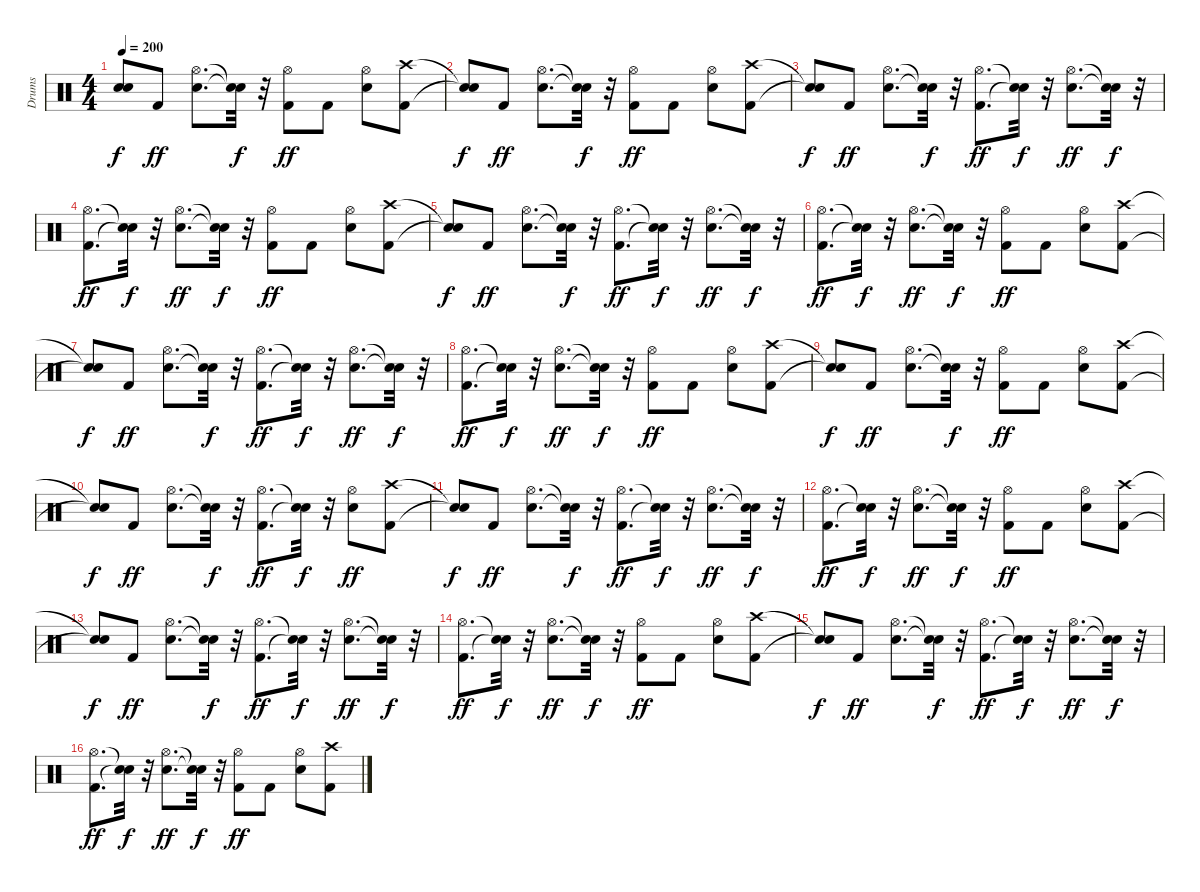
\track ("Drums" "Drums") {instrument percussion}
\staff {score}
\articulation defaults
\ts (4 4)
\tempo 200
\clef neutral
\ks c
("Snare (hit)"{t} "Snare (hit)"{t}).8{dy f} "Kick (hit) 2".8{dy ff} ("Snare (hit) 2" "Hi-Hat (open)").8{d} ("Snare (hit)"{t} "Snare (hit)"{t}).32{dy f} r.32 ("Kick (hit) 2" "Hi-Hat (open)").8{dy ff} "Kick (hit) 2".8 ("Snare (hit) 2" "Hi-Hat (open)").8 ("Kick (hit) 2" "Crash high (hit)").8 |
("Snare (hit)"{t} "Snare (hit)"{t}).8{dy f} "Kick (hit) 2".8{dy ff} ("Snare (hit) 2" "Hi-Hat (open)").8{d} ("Snare (hit)"{t} "Snare (hit)"{t}).32{dy f} r.32 ("Kick (hit) 2" "Hi-Hat (open)").8{dy ff} "Kick (hit) 2".8 ("Snare (hit) 2" "Hi-Hat (open)").8 ("Kick (hit) 2" "Crash high (hit)").8 |
("Snare (hit)"{t} "Snare (hit)"{t}).8{dy f} "Kick (hit) 2".8{dy ff} ("Snare (hit) 2" "Hi-Hat (open)").8{d} ("Snare (hit)"{t} "Snare (hit)"{t}).32{dy f} r.32 ("Kick (hit) 2" "Hi-Hat (open)").8{d dy ff} ("Snare (hit)"{t} "Snare (hit)"{t}).32{dy f} r.32 ("Snare (hit) 2" "Hi-Hat (open)").8{d dy ff} ("Snare (hit)"{t} "Snare (hit)"{t}).32{dy f} r.32 |
("Kick (hit) 2" "Hi-Hat (open)").8{d dy ff} ("Snare (hit)"{t} "Snare (hit)"{t}).32{dy f} r.32 ("Snare (hit) 2" "Hi-Hat (open)").8{d dy ff} ("Snare (hit)"{t} "Snare (hit)"{t}).32{dy f} r.32 ("Kick (hit) 2" "Hi-Hat (open)").8{dy ff} "Kick (hit) 2".8 ("Snare (hit) 2" "Hi-Hat (open)").8 ("Kick (hit) 2" "Crash high (hit)").8 |
("Snare (hit)"{t} "Snare (hit)"{t}).8{dy f} "Kick (hit) 2".8{dy ff} ("Snare (hit) 2" "Hi-Hat (open)").8{d} ("Snare (hit)"{t} "Snare (hit)"{t}).32{dy f} r.32 ("Kick (hit) 2" "Hi-Hat (open)").8{d dy ff} ("Snare (hit)"{t} "Snare (hit)"{t}).32{dy f} r.32 ("Snare (hit) 2" "Hi-Hat (open)").8{d dy ff} ("Snare (hit)"{t} "Snare (hit)"{t}).32{dy f} r.32 |
("Kick (hit) 2" "Hi-Hat (open)").8{d dy ff} ("Snare (hit)"{t} "Snare (hit)"{t}).32{dy f} r.32 ("Snare (hit) 2" "Hi-Hat (open)").8{d dy ff} ("Snare (hit)"{t} "Snare (hit)"{t}).32{dy f} r.32 ("Kick (hit) 2" "Hi-Hat (open)").8{dy ff} "Kick (hit) 2".8 ("Snare (hit) 2" "Hi-Hat (open)").8 ("Kick (hit) 2" "Crash high (hit)").8 |
("Snare (hit)"{t} "Snare (hit)"{t}).8{dy f} "Kick (hit) 2".8{dy ff} ("Snare (hit) 2" "Hi-Hat (open)").8{d} ("Snare (hit)"{t} "Snare (hit)"{t}).32{dy f} r.32 ("Kick (hit) 2" "Hi-Hat (open)").8{d dy ff} ("Snare (hit)"{t} "Snare (hit)"{t}).32{dy f} r.32 ("Snare (hit) 2" "Hi-Hat (open)").8{d dy ff} ("Snare (hit)"{t} "Snare (hit)"{t}).32{dy f} r.32 |
("Kick (hit) 2" "Hi-Hat (open)").8{d dy ff} ("Snare (hit)"{t} "Snare (hit)"{t}).32{dy f} r.32 ("Snare (hit) 2" "Hi-Hat (open)").8{d dy ff} ("Snare (hit)"{t} "Snare (hit)"{t}).32{dy f} r.32 ("Kick (hit) 2" "Hi-Hat (open)").8{dy ff} "Kick (hit) 2".8 ("Snare (hit) 2" "Hi-Hat (open)").8 ("Kick (hit) 2" "Crash high (hit)").8 |
("Snare (hit)"{t} "Snare (hit)"{t}).8{dy f} "Kick (hit) 2".8{dy ff} ("Snare (hit) 2" "Hi-Hat (open)").8{d} ("Snare (hit)"{t} "Snare (hit)"{t}).32{dy f} r.32 ("Kick (hit) 2" "Hi-Hat (open)").8{dy ff} "Kick (hit) 2".8 ("Snare (hit) 2" "Hi-Hat (open)").8 ("Kick (hit) 2" "Crash high (hit)").8 |
("Snare (hit)"{t} "Snare (hit)"{t}).8{dy f} "Kick (hit) 2".8{dy ff} ("Snare (hit) 2" "Hi-Hat (open)").8{d} ("Snare (hit)"{t} "Snare (hit)"{t}).32{dy f} r.32 ("Kick (hit) 2" "Hi-Hat (open)").8{d dy ff} ("Snare (hit)"{t} "Snare (hit)"{t}).32{dy f} r.32 ("Snare (hit) 2" "Hi-Hat (open)").8{dy ff} ("Kick (hit) 2" "Crash high (hit)").8 |
("Snare (hit)"{t} "Snare (hit)"{t}).8{dy f} "Kick (hit) 2".8{dy ff} ("Snare (hit) 2" "Hi-Hat (open)").8{d} ("Snare (hit)"{t} "Snare (hit)"{t}).32{dy f} r.32 ("Kick (hit) 2" "Hi-Hat (open)").8{d dy ff} ("Snare (hit)"{t} "Snare (hit)"{t}).32{dy f} r.32 ("Snare (hit) 2" "Hi-Hat (open)").8{d dy ff} ("Snare (hit)"{t} "Snare (hit)"{t}).32{dy f} r.32 |
("Kick (hit) 2" "Hi-Hat (open)").8{d dy ff} ("Snare (hit)"{t} "Snare (hit)"{t}).32{dy f} r.32 ("Snare (hit) 2" "Hi-Hat (open)").8{d dy ff} ("Snare (hit)"{t} "Snare (hit)"{t}).32{dy f} r.32 ("Kick (hit) 2" "Hi-Hat (open)").8{dy ff} "Kick (hit) 2".8 ("Snare (hit) 2" "Hi-Hat (open)").8 ("Kick (hit) 2" "Crash high (hit)").8 |
("Snare (hit)"{t} "Snare (hit)"{t}).8{dy f} "Kick (hit) 2".8{dy ff} ("Snare (hit) 2" "Hi-Hat (open)").8{d} ("Snare (hit)"{t} "Snare (hit)"{t}).32{dy f} r.32 ("Kick (hit) 2" "Hi-Hat (open)").8{d dy ff} ("Snare (hit)"{t} "Snare (hit)"{t}).32{dy f} r.32 ("Snare (hit) 2" "Hi-Hat (open)").8{d dy ff} ("Snare (hit)"{t} "Snare (hit)"{t}).32{dy f} r.32 |
("Kick (hit) 2" "Hi-Hat (open)").8{d dy ff} ("Snare (hit)"{t} "Snare (hit)"{t}).32{dy f} r.32 ("Snare (hit) 2" "Hi-Hat (open)").8{d dy ff} ("Snare (hit)"{t} "Snare (hit)"{t}).32{dy f} r.32 ("Kick (hit) 2" "Hi-Hat (open)").8{dy ff} "Kick (hit) 2".8 ("Snare (hit) 2" "Hi-Hat (open)").8 ("Kick (hit) 2" "Crash high (hit)").8 |
("Snare (hit)"{t} "Snare (hit)"{t}).8{dy f} "Kick (hit) 2".8{dy ff} ("Snare (hit) 2" "Hi-Hat (open)").8{d} ("Snare (hit)"{t} "Snare (hit)"{t}).32{dy f} r.32 ("Kick (hit) 2" "Hi-Hat (open)").8{d dy ff} ("Snare (hit)"{t} "Snare (hit)"{t}).32{dy f} r.32 ("Snare (hit) 2" "Hi-Hat (open)").8{d dy ff} ("Snare (hit)"{t} "Snare (hit)"{t}).32{dy f} r.32 |
("Kick (hit) 2" "Hi-Hat (open)").8{d dy ff} ("Snare (hit)"{t} "Snare (hit)"{t}).32{dy f} r.32 ("Snare (hit) 2" "Hi-Hat (open)").8{d dy ff} ("Snare (hit)"{t} "Snare (hit)"{t}).32{dy f} r.32 ("Kick (hit) 2" "Hi-Hat (open)").8{dy ff} "Kick (hit) 2".8 ("Snare (hit) 2" "Hi-Hat (open)").8 ("Kick (hit) 2" "Crash high (hit)").8
